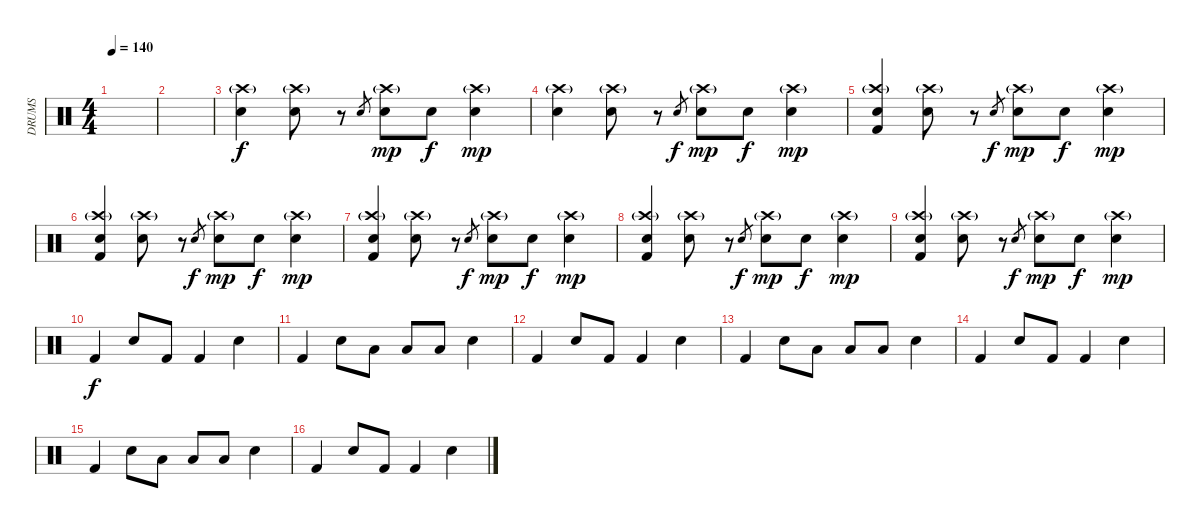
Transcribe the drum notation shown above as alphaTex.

\track ("DRUMS" "DRUMS") {instrument percussion}
\staff {score}
\articulation defaults
\ts (4 4)
\tempo 140
\clef neutral
\ks c
|
|
("Electric Snare (hit)" "Crash high (hit)"{g}).4 ("Electric Snare (hit)" "Crash high (hit)"{g}).8 r.8 "Electric Snare (hit)".8{gr dy f} ("Electric Snare (hit)" "Crash high (hit)"{g}).8{dy mp} "Electric Snare (hit)".8{dy f} ("Electric Snare (hit)" "Crash high (hit)"{g}).4{dy mp} |
("Electric Snare (hit)" "Crash high (hit)"{g}).4 ("Electric Snare (hit)" "Crash high (hit)"{g}).8 r.8 "Electric Snare (hit)".8{gr dy f} ("Electric Snare (hit)" "Crash high (hit)"{g}).8{dy mp} "Electric Snare (hit)".8{dy f} ("Electric Snare (hit)" "Crash high (hit)"{g}).4{dy mp} |
("Kick (hit) 2" "Electric Snare (hit)" "Crash high (hit)"{g}).4 ("Electric Snare (hit)" "Crash high (hit)"{g}).8 r.8 "Electric Snare (hit)".8{gr dy f} ("Electric Snare (hit)" "Crash high (hit)"{g}).8{dy mp} "Electric Snare (hit)".8{dy f} ("Electric Snare (hit)" "Crash high (hit)"{g}).4{dy mp} |
("Kick (hit) 2" "Electric Snare (hit)" "Crash high (hit)"{g}).4 ("Electric Snare (hit)" "Crash high (hit)"{g}).8 r.8 "Electric Snare (hit)".8{gr dy f} ("Electric Snare (hit)" "Crash high (hit)"{g}).8{dy mp} "Electric Snare (hit)".8{dy f} ("Electric Snare (hit)" "Crash high (hit)"{g}).4{dy mp} |
("Kick (hit) 2" "Electric Snare (hit)" "Crash high (hit)"{g}).4 ("Electric Snare (hit)" "Crash high (hit)"{g}).8 r.8 "Electric Snare (hit)".8{gr dy f} ("Electric Snare (hit)" "Crash high (hit)"{g}).8{dy mp} "Electric Snare (hit)".8{dy f} ("Electric Snare (hit)" "Crash high (hit)"{g}).4{dy mp} |
("Kick (hit) 2" "Electric Snare (hit)" "Crash high (hit)"{g}).4 ("Electric Snare (hit)" "Crash high (hit)"{g}).8 r.8 "Electric Snare (hit)".8{gr dy f} ("Electric Snare (hit)" "Crash high (hit)"{g}).8{dy mp} "Electric Snare (hit)".8{dy f} ("Electric Snare (hit)" "Crash high (hit)"{g}).4{dy mp} |
("Kick (hit) 2" "Electric Snare (hit)" "Crash high (hit)"{g}).4 ("Electric Snare (hit)" "Crash high (hit)"{g}).8 r.8 "Electric Snare (hit)".8{gr dy f} ("Electric Snare (hit)" "Crash high (hit)"{g}).8{dy mp} "Electric Snare (hit)".8{dy f} ("Electric Snare (hit)" "Crash high (hit)"{g}).4{dy mp} |
"Kick (hit) 2".4{dy f} "Electric Snare (hit)".8 "Kick (hit) 2".8 "Kick (hit) 2".4 "Electric Snare (hit)".4 |
"Kick (hit) 2".4 "Electric Snare (hit)".8 "Low Tom (hit)".8 "Low Tom (hit)".8 "Low Tom (hit)".8 "Electric Snare (hit)".4 |
"Kick (hit) 2".4 "Electric Snare (hit)".8 "Kick (hit) 2".8 "Kick (hit) 2".4 "Electric Snare (hit)".4 |
"Kick (hit) 2".4 "Electric Snare (hit)".8 "Low Tom (hit)".8 "Low Tom (hit)".8 "Low Tom (hit)".8 "Electric Snare (hit)".4 |
"Kick (hit) 2".4 "Electric Snare (hit)".8 "Kick (hit) 2".8 "Kick (hit) 2".4 "Electric Snare (hit)".4 |
"Kick (hit) 2".4 "Electric Snare (hit)".8 "Low Tom (hit)".8 "Low Tom (hit)".8 "Low Tom (hit)".8 "Electric Snare (hit)".4 |
"Kick (hit) 2".4 "Electric Snare (hit)".8 "Kick (hit) 2".8 "Kick (hit) 2".4 "Electric Snare (hit)".4
